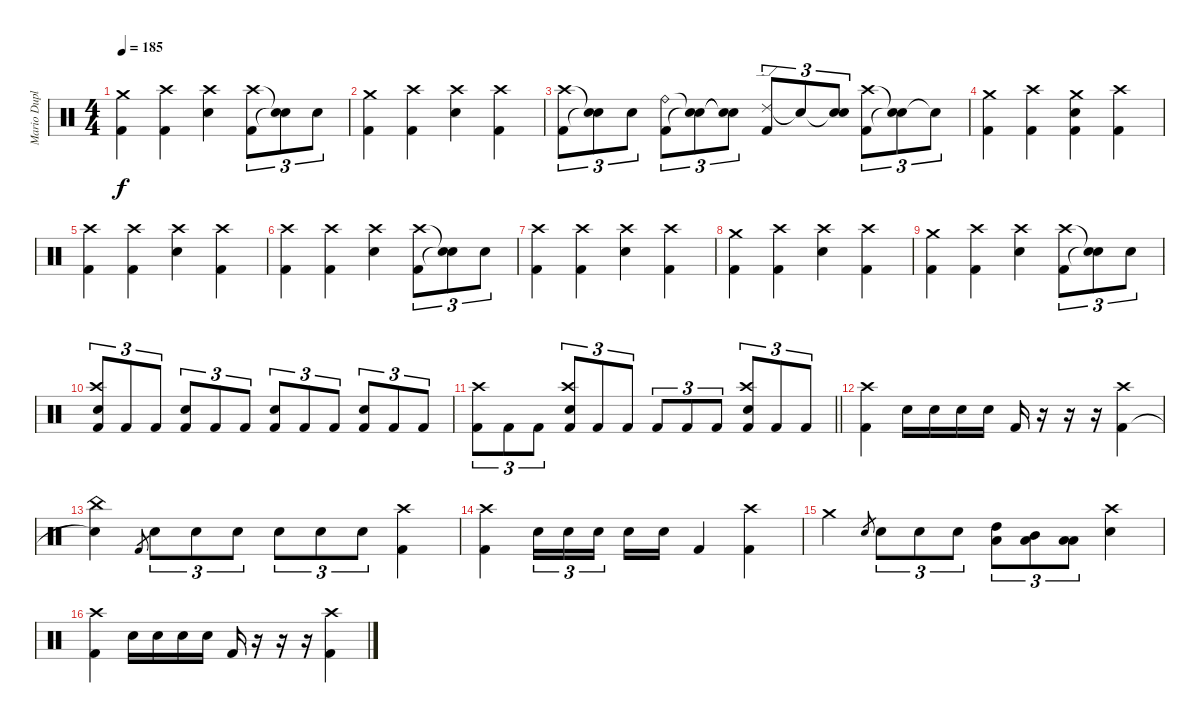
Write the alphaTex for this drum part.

\track ("Mario Duplantier" "Mario Dupl") {instrument percussion}
\staff {score}
\articulation defaults
\ts (4 4)
\tempo 185
\clef neutral
\ks c
("Crash medium (hit)" "Kick (hit) 2").4{dy f} ("Crash high (hit)" "Kick (hit) 2").4 ("Crash high (hit)" "Electric Snare (hit)").4 ("Crash high (hit)" "Kick (hit) 2").8{tu (3 2)} ("Snare (hit)"{t} "Snare (hit)"{t}).8{tu (3 2)} "Electric Snare (hit)".8{tu (3 2)} |
("Crash medium (hit)" "Kick (hit) 2").4 ("Crash high (hit)" "Kick (hit) 2").4 ("Crash high (hit)" "Electric Snare (hit)").4 ("Crash high (hit)" "Kick (hit) 2").4 |
("Crash high (hit)" "Kick (hit) 2").8{tu (3 2)} ("Snare (hit)"{t} "Snare (hit)"{t}).8{tu (3 2)} "Electric Snare (hit)".8{tu (3 2)} ("Ride (bell)" "Kick (hit) 2").8{tu (3 2)} ("Snare (hit)"{t} "Snare (hit)"{t}).8{tu (3 2)} ("Snare (hit)"{t} "Snare (hit)"{t}).8{tu (3 2)} ("Ride (edge) 2" "Kick (hit) 2").8{tu (3 2)} "Snare (hit)"{t}.8{tu (3 2)} ("Snare (hit)"{t} "Electric Snare (hit)").8{tu (3 2)} ("Crash high (hit)" "Kick (hit) 2").8{tu (3 2)} ("Snare (hit)"{t} "Snare (hit)"{t}).8{tu (3 2)} "Snare (hit)"{t}.8{tu (3 2)} |
("Crash medium (hit)" "Kick (hit) 2").4 ("Crash high (hit)" "Kick (hit) 2").4 ("Crash medium (hit)" "Kick (hit) 2" "Electric Snare (hit)").4 ("Crash high (hit)" "Kick (hit) 2").4 |
("Crash high (hit)" "Kick (hit) 2").4 ("Crash high (hit)" "Kick (hit) 2").4 ("Crash high (hit)" "Electric Snare (hit)").4 ("Crash high (hit)" "Kick (hit) 2").4 |
("Crash high (hit)" "Kick (hit) 2").4 ("Crash high (hit)" "Kick (hit) 2").4 ("Crash high (hit)" "Electric Snare (hit)").4 ("Crash high (hit)" "Kick (hit) 2").8{tu (3 2)} ("Snare (hit)"{t} "Snare (hit)"{t}).8{tu (3 2)} "Electric Snare (hit)".8{tu (3 2)} |
("Crash high (hit)" "Kick (hit) 2").4 ("Crash high (hit)" "Kick (hit) 2").4 ("Crash high (hit)" "Electric Snare (hit)").4 ("Crash high (hit)" "Kick (hit) 2").4 |
("Crash medium (hit)" "Kick (hit) 2").4 ("Crash high (hit)" "Kick (hit) 2").4 ("Crash high (hit)" "Electric Snare (hit)").4 ("Crash high (hit)" "Kick (hit) 2").4 |
("Crash medium (hit)" "Kick (hit) 2").4 ("Crash high (hit)" "Kick (hit) 2").4 ("Crash high (hit)" "Electric Snare (hit)").4 ("Crash high (hit)" "Kick (hit) 2").8{tu (3 2)} ("Snare (hit)"{t} "Snare (hit)"{t}).8{tu (3 2)} "Electric Snare (hit)".8{tu (3 2)} |
("Crash high (hit)" "Electric Snare (hit)" "Kick (hit) 2").8{tu (3 2)} "Kick (hit) 2".8{tu (3 2)} "Kick (hit) 2".8{tu (3 2)} ("Electric Snare (hit)" "Kick (hit) 2").8{tu (3 2)} "Kick (hit) 2".8{tu (3 2)} "Kick (hit) 2".8{tu (3 2)} ("Electric Snare (hit)" "Kick (hit) 2").8{tu (3 2)} "Kick (hit) 2".8{tu (3 2)} "Kick (hit) 2".8{tu (3 2)} ("Electric Snare (hit)" "Kick (hit) 2").8{tu (3 2)} "Kick (hit) 2".8{tu (3 2)} "Kick (hit) 2".8{tu (3 2)} |
\barLineRight lightlight
("Crash high (hit)" "Kick (hit) 2").8{tu (3 2)} "Kick (hit) 2".8{tu (3 2)} "Kick (hit) 2".8{tu (3 2)} ("Crash high (hit)" "Electric Snare (hit)" "Kick (hit) 2").8{tu (3 2)} "Kick (hit) 2".8{tu (3 2)} "Kick (hit) 2".8{tu (3 2)} "Kick (hit) 2".8{tu (3 2)} "Kick (hit) 2".8{tu (3 2)} "Kick (hit) 2".8{tu (3 2)} ("Crash high (hit)" "Electric Snare (hit)" "Kick (hit) 2").8{tu (3 2)} "Kick (hit) 2".8{tu (3 2)} "Kick (hit) 2".8{tu (3 2)} |
("Crash high (hit)" "Kick (hit) 2").4 "Electric Snare (hit)".16 "Electric Snare (hit)".16 "Electric Snare (hit)".16 "Electric Snare (hit)".16 "Kick (hit) 2".16 r.16 r.16 r.16 ("Crash high (hit)" "Kick (hit) 2").4 |
("China (hit)" "Snare (hit)"{t}).4 "Kick (hit) 2".8{gr} "Electric Snare (hit)".8{tu (3 2)} "Electric Snare (hit)".8{tu (3 2)} "Electric Snare (hit)".8{tu (3 2)} "Electric Snare (hit)".8{tu (3 2)} "Electric Snare (hit)".8{tu (3 2)} "Electric Snare (hit)".8{tu (3 2)} ("Crash high (hit)" "Kick (hit) 2").4 |
("Crash high (hit)" "Kick (hit) 2").4 "Electric Snare (hit)".16{tu (3 2)} "Electric Snare (hit)".16{tu (3 2)} "Electric Snare (hit)".16{tu (3 2) beam splitsecondary} "Electric Snare (hit)".16 "Electric Snare (hit)".16 "Kick (hit) 2".4 ("Crash high (hit)" "Kick (hit) 2").4 |
"Crash medium (hit)".4 "Electric Snare (hit)".8{gr} "Electric Snare (hit)".8{tu (3 2)} "Electric Snare (hit)".8{tu (3 2)} "Electric Snare (hit)".8{tu (3 2)} ("High Tom (hit)" "Low Floor Tom (hit)").8{tu (3 2)} ("Mid Tom (hit)" "Low Floor Tom (hit)").8{tu (3 2)} ("Low Tom (hit)" "Low Floor Tom (hit)").8{tu (3 2)} ("Crash high (hit)" "Electric Snare (hit)").4 |
("Crash high (hit)" "Kick (hit) 2").4 "Electric Snare (hit)".16 "Electric Snare (hit)".16 "Electric Snare (hit)".16 "Electric Snare (hit)".16 "Kick (hit) 2".16 r.16 r.16 r.16 ("Crash high (hit)" "Kick (hit) 2").4
